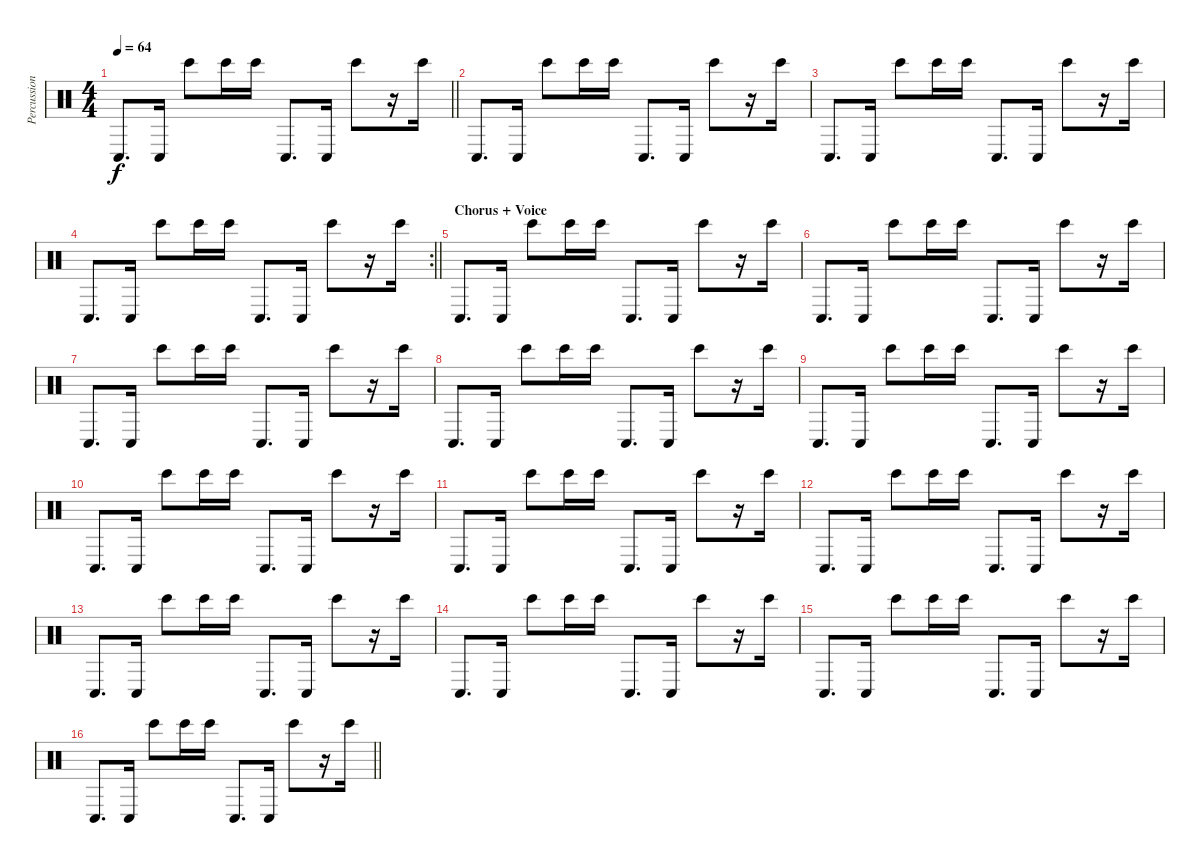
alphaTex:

\track ("Percussions" "Percussion") {instrument percussion}
\staff {score}
\articulation defaults
\ts (4 4)
\tempo 64
\clef neutral
\barLineRight lightlight
\ks c "Conga low (hit)".8{d dy f} "Conga low (hit)".16 "Bongo High (hit)".8 "Bongo High (hit)".16 "Bongo High (hit)".16 "Conga low (hit)".8{d} "Conga low (hit)".16 "Bongo High (hit)".8
r.16 "Bongo High (hit)".16 |
"Conga low (hit)".8{d} "Conga low (hit)".16 "Bongo High (hit)".8 "Bongo High (hit)".16 "Bongo High (hit)".16 "Conga low (hit)".8{d} "Conga low (hit)".16 "Bongo High (hit)".8 r.16 "Bongo High (hit)".16 |
"Conga low (hit)".8{d} "Conga low (hit)".16 "Bongo High (hit)".8 "Bongo High (hit)".16 "Bongo High (hit)".16 "Conga low (hit)".8{d} "Conga low (hit)".16 "Bongo High (hit)".8 r.16 "Bongo High (hit)".16 |
\rc 2
\barLineRight lightlight "Conga low (hit)".8{d} "Conga low (hit)".16 "Bongo High (hit)".8 "Bongo High (hit)".16 "Bongo High (hit)".16 "Conga low (hit)".8{d} "Conga low (hit)".16 "Bongo High (hit)".8
r.16 "Bongo High (hit)".16 |
\section ("" "Chorus + Voice")
"Conga low (hit)".8{d} "Conga low (hit)".16 "Bongo High (hit)".8 "Bongo High (hit)".16 "Bongo High (hit)".16 "Conga low (hit)".8{d} "Conga low (hit)".16 "Bongo High (hit)".8 r.16 "Bongo High (hit)".16 |
"Conga low (hit)".8{d} "Conga low (hit)".16 "Bongo High (hit)".8 "Bongo High (hit)".16 "Bongo High (hit)".16 "Conga low (hit)".8{d} "Conga low (hit)".16 "Bongo High (hit)".8 r.16 "Bongo High (hit)".16 |
"Conga low (hit)".8{d} "Conga low (hit)".16 "Bongo High (hit)".8 "Bongo High (hit)".16 "Bongo High (hit)".16 "Conga low (hit)".8{d} "Conga low (hit)".16 "Bongo High (hit)".8 r.16 "Bongo High (hit)".16 |
"Conga low (hit)".8{d} "Conga low (hit)".16 "Bongo High (hit)".8 "Bongo High (hit)".16 "Bongo High (hit)".16 "Conga low (hit)".8{d} "Conga low (hit)".16 "Bongo High (hit)".8 r.16 "Bongo High (hit)".16 |
"Conga low (hit)".8{d} "Conga low (hit)".16 "Bongo High (hit)".8 "Bongo High (hit)".16 "Bongo High (hit)".16 "Conga low (hit)".8{d} "Conga low (hit)".16 "Bongo High (hit)".8 r.16 "Bongo High (hit)".16 |
"Conga low (hit)".8{d} "Conga low (hit)".16 "Bongo High (hit)".8 "Bongo High (hit)".16 "Bongo High (hit)".16 "Conga low (hit)".8{d} "Conga low (hit)".16 "Bongo High (hit)".8 r.16 "Bongo High (hit)".16 |
"Conga low (hit)".8{d} "Conga low (hit)".16 "Bongo High (hit)".8 "Bongo High (hit)".16 "Bongo High (hit)".16 "Conga low (hit)".8{d} "Conga low (hit)".16 "Bongo High (hit)".8 r.16 "Bongo High (hit)".16 |
"Conga low (hit)".8{d} "Conga low (hit)".16 "Bongo High (hit)".8 "Bongo High (hit)".16 "Bongo High (hit)".16 "Conga low (hit)".8{d} "Conga low (hit)".16 "Bongo High (hit)".8 r.16 "Bongo High (hit)".16 |
"Conga low (hit)".8{d} "Conga low (hit)".16 "Bongo High (hit)".8 "Bongo High (hit)".16 "Bongo High (hit)".16 "Conga low (hit)".8{d} "Conga low (hit)".16 "Bongo High (hit)".8 r.16 "Bongo High (hit)".16 |
"Conga low (hit)".8{d} "Conga low (hit)".16 "Bongo High (hit)".8 "Bongo High (hit)".16 "Bongo High (hit)".16 "Conga low (hit)".8{d} "Conga low (hit)".16 "Bongo High (hit)".8 r.16 "Bongo High (hit)".16 |
"Conga low (hit)".8{d} "Conga low (hit)".16 "Bongo High (hit)".8 "Bongo High (hit)".16 "Bongo High (hit)".16 "Conga low (hit)".8{d} "Conga low (hit)".16 "Bongo High (hit)".8 r.16 "Bongo High (hit)".16 |
\barLineRight lightlight "Conga low (hit)".8{d} "Conga low (hit)".16 "Bongo High (hit)".8 "Bongo High (hit)".16 "Bongo High (hit)".16 "Conga low (hit)".8{d} "Conga low (hit)".16 "Bongo High (hit)".8
r.16 "Bongo High (hit)".16
